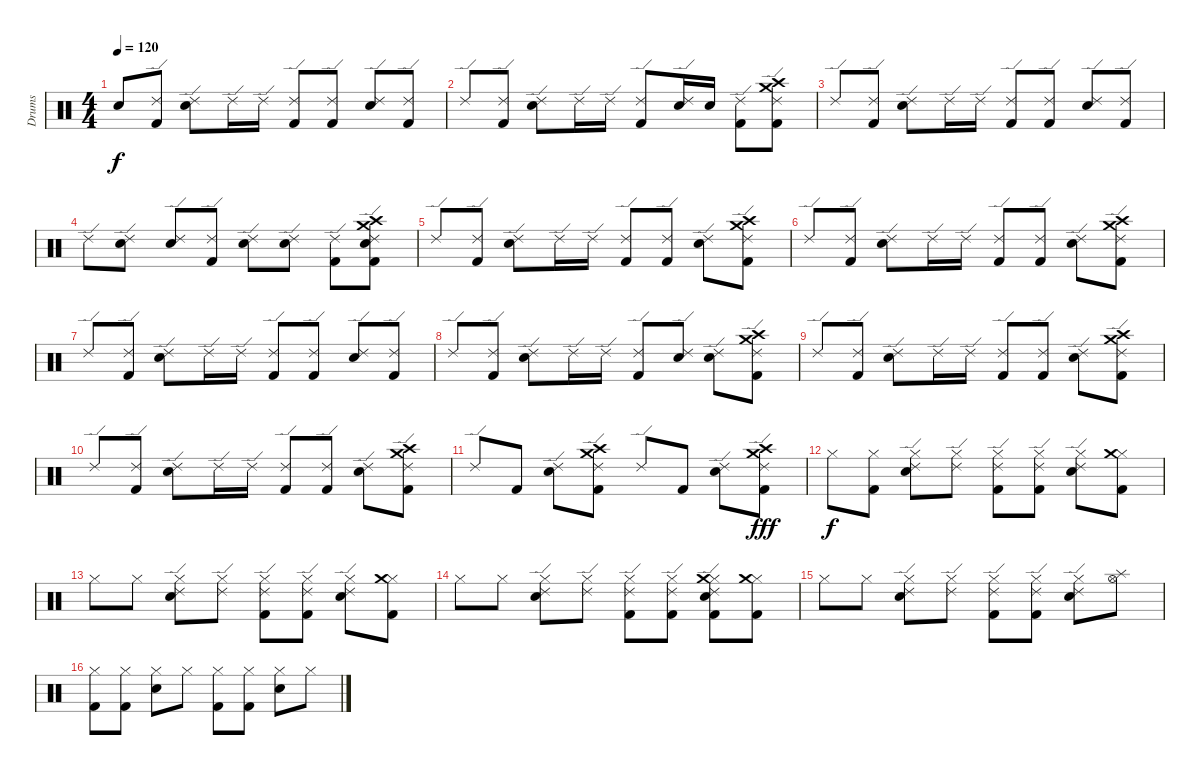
\track ("Drums" "Drums") {instrument percussion}
\staff {score}
\articulation defaults
\ts (4 4)
\tempo 120
\clef neutral
\ks c "Snare (hit)"{t}.8{dy f}
("Kick (hit) 2" "Ride (edge) 2").8 ("Snare (hit) 2" "Ride (edge) 2").8 "Ride (edge) 2".16 "Ride (edge) 2".16 ("Kick (hit) 2" "Ride (edge) 2").8 ("Kick (hit) 2" "Ride (edge) 2").8 ("Snare (hit) 2" "Ride (edge) 2").8 ("Kick (hit) 2" "Ride (edge) 2").8 |
"Ride (edge) 2".8 ("Kick (hit) 2" "Ride (edge) 2").8 ("Snare (hit) 2" "Ride (edge) 2").8 "Ride (edge) 2".16 "Ride (edge) 2".16 ("Kick (hit) 2" "Ride (edge) 2").8 ("Snare (hit) 2" "Ride (edge) 2").16 "Snare (hit) 2".16 ("Kick (hit) 2" "Ride (edge) 2").8 ("Kick (hit) 2" "Crash high (hit)" "Ride (edge) 2" "Crash medium (hit)").8 |
"Ride (edge) 2".8 ("Kick (hit) 2" "Ride (edge) 2").8 ("Snare (hit) 2" "Ride (edge) 2").8 "Ride (edge) 2".16 "Ride (edge) 2".16 ("Kick (hit) 2" "Ride (edge) 2").8 ("Kick (hit) 2" "Ride (edge) 2").8 ("Ride (edge) 2" "Snare (hit) 2").8 ("Kick (hit) 2" "Ride (edge) 2").8 |
"Ride (edge) 2".8 ("Snare (hit) 2" "Ride (edge) 2").8 ("Snare (hit) 2" "Ride (edge) 2").8 ("Kick (hit) 2" "Ride (edge) 2").8 ("Snare (hit) 2" "Ride (edge) 2").8 ("Ride (edge) 2" "Snare (hit) 2").8 ("Kick (hit) 2" "Ride (edge) 2").8 ("Kick (hit) 2" "Snare (hit) 2" "Crash medium (hit)" "Crash high (hit)" "Ride (edge) 2").8 |
"Ride (edge) 2".8 ("Kick (hit) 2" "Ride (edge) 2").8 ("Snare (hit) 2" "Ride (edge) 2").8 "Ride (edge) 2".16 "Ride (edge) 2".16 ("Kick (hit) 2" "Ride (edge) 2").8 ("Kick (hit) 2" "Ride (edge) 2").8 ("Snare (hit) 2" "Ride (edge) 2").8 ("Kick (hit) 2" "Crash medium (hit)" "Crash high (hit)" "Ride (edge) 2").8 |
"Ride (edge) 2".8 ("Kick (hit) 2" "Ride (edge) 2").8 ("Snare (hit) 2" "Ride (edge) 2").8 "Ride (edge) 2".16 "Ride (edge) 2".16 ("Kick (hit) 2" "Ride (edge) 2").8 ("Kick (hit) 2" "Ride (edge) 2").8 ("Snare (hit) 2" "Ride (edge) 2").8 ("Kick (hit) 2" "Crash medium (hit)" "Crash high (hit)" "Ride (edge) 2").8 |
"Ride (edge) 2".8 ("Kick (hit) 2" "Ride (edge) 2").8 ("Snare (hit) 2" "Ride (edge) 2").8 "Ride (edge) 2".16 "Ride (edge) 2".16 ("Kick (hit) 2" "Ride (edge) 2").8 ("Kick (hit) 2" "Ride (edge) 2").8 ("Snare (hit) 2" "Ride (edge) 2").8 ("Kick (hit) 2" "Ride (edge) 2").8 |
"Ride (edge) 2".8 ("Kick (hit) 2" "Ride (edge) 2").8 ("Snare (hit) 2" "Ride (edge) 2").8 "Ride (edge) 2".16 "Ride (edge) 2".16 ("Kick (hit) 2" "Ride (edge) 2").8 ("Snare (hit) 2" "Ride (edge) 2").8 ("Snare (hit) 2" "Ride (edge) 2").8 ("Kick (hit) 2" "Crash medium (hit)" "Crash high (hit)" "Ride (edge) 2").8 |
"Ride (edge) 2".8 ("Kick (hit) 2" "Ride (edge) 2").8 ("Snare (hit) 2" "Ride (edge) 2").8 "Ride (edge) 2".16 "Ride (edge) 2".16 ("Kick (hit) 2" "Ride (edge) 2").8 ("Kick (hit) 2" "Ride (edge) 2").8 ("Ride (edge) 2" "Snare (hit) 2").8 ("Kick (hit) 2" "Crash medium (hit)" "Ride (edge) 2" "Crash high (hit)").8 |
"Ride (edge) 2".8 ("Kick (hit) 2" "Ride (edge) 2").8 ("Snare (hit) 2" "Ride (edge) 2").8 "Ride (edge) 2".16 "Ride (edge) 2".16 ("Kick (hit) 2" "Ride (edge) 2").8 ("Kick (hit) 2" "Ride (edge) 2").8 ("Snare (hit) 2" "Ride (edge) 2").8 ("Kick (hit) 2" "Crash medium (hit)" "Crash high (hit)" "Ride (edge) 2").8 |
"Ride (edge) 2".8 "Kick (hit) 2".8 ("Ride (edge) 2" "Snare (hit) 2").8 ("Ride (edge) 2" "Kick (hit) 2" "Crash medium (hit)" "Crash high (hit)").8 "Ride (edge) 2".8 "Kick (hit) 2".8 ("Ride (edge) 2" "Snare (hit) 2").8 ("Ride (edge) 2" "Kick (hit) 2" "Crash medium (hit)" "Crash high (hit)").8{dy fff} |
"Hi-Hat (closed)".8{dy f} ("Hi-Hat (closed)" "Kick (hit) 2").8 ("Hi-Hat (closed)" "Ride (edge) 2" "Snare (hit) 2").8 ("Hi-Hat (closed)" "Ride (edge) 2").8 ("Hi-Hat (closed)" "Ride (edge) 2" "Kick (hit) 2").8 ("Hi-Hat (closed)" "Ride (edge) 2" "Kick (hit) 2").8 ("Hi-Hat (closed)" "Ride (edge) 2" "Snare (hit) 2").8 ("Hi-Hat (closed)" "Kick (hit) 2" "Crash medium (hit)").8 |
"Hi-Hat (closed)".8 "Hi-Hat (closed)".8 ("Hi-Hat (closed)" "Snare (hit) 2" "Ride (edge) 2").8 ("Hi-Hat (closed)" "Ride (edge) 2").8 ("Hi-Hat (closed)" "Ride (edge) 2" "Kick (hit) 2").8 ("Hi-Hat (closed)" "Kick (hit) 2" "Ride (edge) 2").8 ("Hi-Hat (closed)" "Ride (edge) 2" "Snare (hit) 2").8 ("Hi-Hat (closed)" "Kick (hit) 2" "Crash medium (hit)").8 |
"Hi-Hat (closed)".8 "Hi-Hat (closed)".8 ("Hi-Hat (closed)" "Ride (edge) 2" "Snare (hit) 2").8 ("Hi-Hat (closed)" "Ride (edge) 2").8 ("Hi-Hat (closed)" "Ride (edge) 2" "Kick (hit) 2").8 ("Hi-Hat (closed)" "Ride (edge) 2" "Kick (hit) 2").8 ("Hi-Hat (closed)" "Ride (edge) 2" "Kick (hit) 2" "Snare (hit) 2" "Crash medium (hit)").8 ("Hi-Hat (closed)" "Kick (hit) 2" "Crash medium (hit)").8 |
"Hi-Hat (closed)".8 "Hi-Hat (closed)".8 ("Hi-Hat (closed)" "Ride (edge) 2" "Snare (hit) 2").8 ("Hi-Hat (closed)" "Ride (edge) 2").8 ("Hi-Hat (closed)" "Ride (edge) 2" "Kick (hit) 2").8 ("Hi-Hat (closed)" "Kick (hit) 2" "Ride (edge) 2").8 ("Hi-Hat (closed)" "Ride (edge) 2" "Snare (hit) 2").8 ("Hi-Hat (open)" "Splash (hit)").8 |
("Hi-Hat (closed)" "Kick (hit) 2").8 ("Hi-Hat (closed)" "Kick (hit) 2").8 ("Hi-Hat (closed)" "Snare (hit) 2").8 "Hi-Hat (closed)".8 ("Hi-Hat (closed)" "Kick (hit) 2").8 ("Hi-Hat (closed)" "Kick (hit) 2").8 ("Hi-Hat (closed)" "Snare (hit) 2").8 "Hi-Hat (closed)".8
